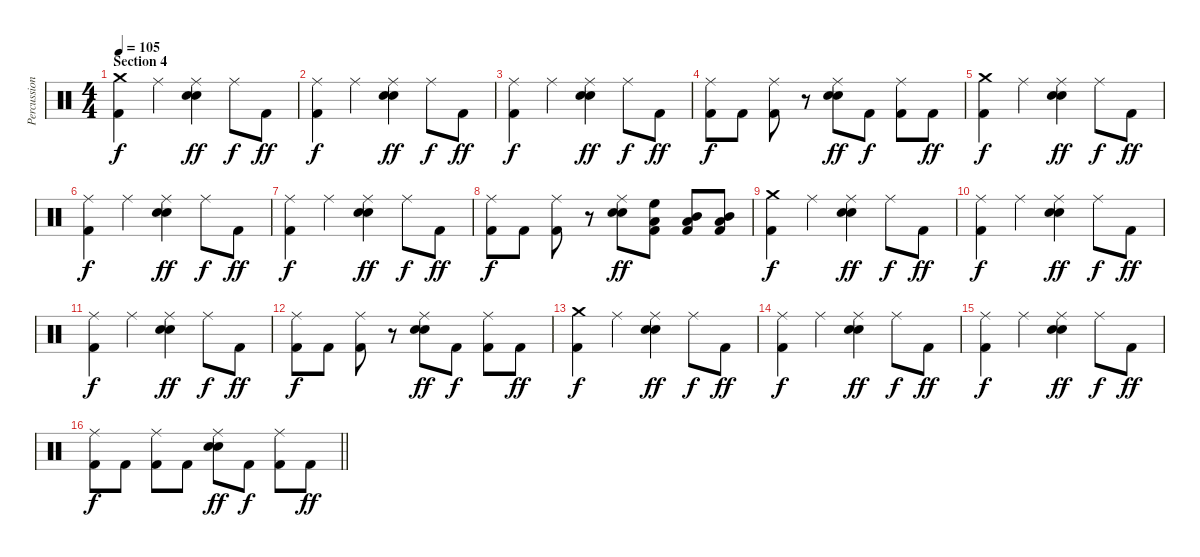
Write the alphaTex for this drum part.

\track ("Percussion" "Percussion") {instrument percussion}
\staff {score}
\articulation defaults
\ts (4 4)
\section ("" "Section 4")
\tempo 105
\clef neutral
\ks c
("Crash medium (hit)" "Kick (hit) 2").4{dy f} "Ride (middle)".4 ("Ride (middle)" "Electric Snare (hit)" "Snare (hit) 2").4{dy ff} "Ride (middle)".8{dy f} "Kick (hit) 2".8{dy ff} |
("Ride (middle)" "Kick (hit) 2").4{dy f} "Ride (middle)".4 ("Ride (middle)" "Electric Snare (hit)" "Snare (hit) 2").4{dy ff} "Ride (middle)".8{dy f} "Kick (hit) 2".8{dy ff} |
("Ride (middle)" "Kick (hit) 2").4{dy f} "Ride (middle)".4 ("Ride (middle)" "Electric Snare (hit)" "Snare (hit) 2").4{dy ff} "Ride (middle)".8{dy f} "Kick (hit) 2".8{dy ff} |
("Ride (middle)" "Kick (hit) 2").8{dy f} "Kick (hit) 2".8 ("Ride (middle)" "Kick (hit) 2").8 r.8 ("Ride (middle)" "Electric Snare (hit)" "Snare (hit) 2").8{dy ff} "Kick (hit) 2".8{dy f} ("Ride (middle)" "Kick (hit) 2").8 "Kick (hit) 2".8{dy ff} |
("Crash medium (hit)" "Kick (hit) 2").4{dy f} "Ride (middle)".4 ("Ride (middle)" "Electric Snare (hit)" "Snare (hit) 2").4{dy ff} "Ride (middle)".8{dy f} "Kick (hit) 2".8{dy ff} |
("Ride (middle)" "Kick (hit) 2").4{dy f} "Ride (middle)".4 ("Ride (middle)" "Electric Snare (hit)" "Snare (hit) 2").4{dy ff} "Ride (middle)".8{dy f} "Kick (hit) 2".8{dy ff} |
("Ride (middle)" "Kick (hit) 2").4{dy f} "Ride (middle)".4 ("Ride (middle)" "Electric Snare (hit)" "Snare (hit) 2").4{dy ff} "Ride (middle)".8{dy f} "Kick (hit) 2".8{dy ff} |
("Ride (middle)" "Kick (hit) 2").8{dy f} "Kick (hit) 2".8 ("Ride (middle)" "Kick (hit) 2").8 r.8 ("Ride (middle)" "Electric Snare (hit)" "Snare (hit) 2").8{dy ff} ("High Floor Tom (hit)" "Low Tom (hit)" "Kick (hit) 2").8 ("Low Tom (hit)" "Mid Tom (hit)" "Kick (hit) 2").8 ("Low Floor Tom (hit)" "Mid Tom (hit)" "Kick (hit) 2").8 |
("Crash medium (hit)" "Kick (hit) 2").4{dy f} "Ride (middle)".4 ("Ride (middle)" "Electric Snare (hit)" "Snare (hit) 2").4{dy ff} "Ride (middle)".8{dy f} "Kick (hit) 2".8{dy ff} |
("Ride (middle)" "Kick (hit) 2").4{dy f} "Ride (middle)".4 ("Ride (middle)" "Electric Snare (hit)" "Snare (hit) 2").4{dy ff} "Ride (middle)".8{dy f} "Kick (hit) 2".8{dy ff} |
("Ride (middle)" "Kick (hit) 2").4{dy f} "Ride (middle)".4 ("Ride (middle)" "Electric Snare (hit)" "Snare (hit) 2").4{dy ff} "Ride (middle)".8{dy f} "Kick (hit) 2".8{dy ff} |
("Ride (middle)" "Kick (hit) 2").8{dy f} "Kick (hit) 2".8 ("Ride (middle)" "Kick (hit) 2").8 r.8 ("Ride (middle)" "Electric Snare (hit)" "Snare (hit) 2").8{dy ff} "Kick (hit) 2".8{dy f} ("Ride (middle)" "Kick (hit) 2").8 "Kick (hit) 2".8{dy ff} |
("Crash medium (hit)" "Kick (hit) 2").4{dy f} "Ride (middle)".4 ("Ride (middle)" "Electric Snare (hit)" "Snare (hit) 2").4{dy ff} "Ride (middle)".8{dy f} "Kick (hit) 2".8{dy ff} |
("Ride (middle)" "Kick (hit) 2").4{dy f} "Ride (middle)".4 ("Ride (middle)" "Electric Snare (hit)" "Snare (hit) 2").4{dy ff} "Ride (middle)".8{dy f} "Kick (hit) 2".8{dy ff} |
("Ride (middle)" "Kick (hit) 2").4{dy f} "Ride (middle)".4 ("Ride (middle)" "Electric Snare (hit)" "Snare (hit) 2").4{dy ff} "Ride (middle)".8{dy f} "Kick (hit) 2".8{dy ff} |
\barLineRight lightlight
("Ride (middle)" "Kick (hit) 2").8{dy f} "Kick (hit) 2".8 ("Ride (middle)" "Kick (hit) 2").8 "Kick (hit) 2".8 ("Ride (middle)" "Electric Snare (hit)" "Snare (hit) 2").8{dy ff} "Kick (hit) 2".8{dy f} ("Ride (middle)" "Kick (hit) 2").8 "Kick (hit) 2".8{dy ff}
